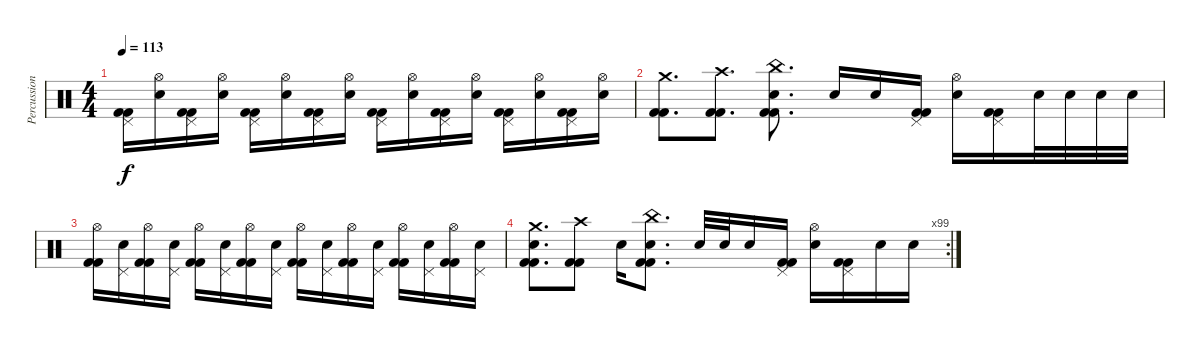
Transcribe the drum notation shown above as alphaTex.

\track ("Percussion" "Percussion") {instrument percussion}
\staff {score}
\articulation defaults
\ts (4 4)
\tempo 113
\clef neutral
\ks c
("Pedal Hi-Hat (hit)" "Kick (hit) 2" "Kick (hit) 2").16{dy f} ("Hi-Hat (open)" "Snare (hit) 2").16 ("Pedal Hi-Hat (hit)" "Kick (hit) 2" "Kick (hit) 2").16 ("Hi-Hat (open)" "Snare (hit) 2").16 ("Pedal Hi-Hat (hit)" "Kick (hit) 2" "Kick (hit) 2").16 ("Hi-Hat (open)" "Snare (hit) 2").16 ("Pedal Hi-Hat (hit)" "Kick (hit) 2" "Kick (hit) 2").16 ("Hi-Hat (open)" "Snare (hit) 2").16 ("Pedal Hi-Hat (hit)" "Kick (hit) 2" "Kick (hit) 2").16 ("Hi-Hat (open)" "Snare (hit) 2").16 ("Pedal Hi-Hat (hit)" "Kick (hit) 2" "Kick (hit) 2").16 ("Hi-Hat (open)" "Snare (hit) 2").16 ("Pedal Hi-Hat (hit)" "Kick (hit) 2" "Kick (hit) 2").16 ("Hi-Hat (open)" "Snare (hit) 2").16 ("Pedal Hi-Hat (hit)" "Kick (hit) 2" "Kick (hit) 2").16 ("Hi-Hat (open)" "Snare (hit) 2").16 |
("Crash medium (hit)" "Kick (hit) 2" "Kick (hit) 2").8{d} ("Crash high (hit)" "Kick (hit) 2" "Kick (hit) 2").8{d} ("China (hit)" "Snare (hit) 2" "Kick (hit) 2" "Kick (hit) 2").8{d} "Snare (hit) 2".16 "Snare (hit) 2".16 ("Pedal Hi-Hat (hit)" "Kick (hit) 2" "Kick (hit) 2").16 ("Hi-Hat (open)" "Snare (hit) 2").16 ("Pedal Hi-Hat (hit)" "Kick (hit) 2" "Kick (hit) 2").16 "Snare (hit) 2".32 "Snare (hit) 2".32 "Snare (hit) 2".32 "Snare (hit) 2".32 |
("Hi-Hat (open)" "Kick (hit) 2" "Kick (hit) 2").16 ("Pedal Hi-Hat (hit)" "Snare (hit) 2").16 ("Hi-Hat (open)" "Kick (hit) 2" "Kick (hit) 2").16 ("Pedal Hi-Hat (hit)" "Snare (hit) 2").16 ("Hi-Hat (open)" "Kick (hit) 2" "Kick (hit) 2").16 ("Pedal Hi-Hat (hit)" "Snare (hit) 2").16 ("Hi-Hat (open)" "Kick (hit) 2" "Kick (hit) 2").16 ("Pedal Hi-Hat (hit)" "Snare (hit) 2").16 ("Hi-Hat (open)" "Kick (hit) 2" "Kick (hit) 2").16 ("Pedal Hi-Hat (hit)" "Snare (hit) 2").16 ("Hi-Hat (open)" "Kick (hit) 2" "Kick (hit) 2").16 ("Pedal Hi-Hat (hit)" "Snare (hit) 2").16 ("Hi-Hat (open)" "Kick (hit) 2" "Kick (hit) 2").16 ("Pedal Hi-Hat (hit)" "Snare (hit) 2").16 ("Hi-Hat (open)" "Kick (hit) 2" "Kick (hit) 2").16 ("Pedal Hi-Hat (hit)" "Snare (hit) 2").16 |
\rc 99
("Crash medium (hit)" "Snare (hit) 2" "Kick (hit) 2" "Kick (hit) 2").8{d} ("Crash high (hit)" "Kick (hit) 2" "Kick (hit) 2").8 "Snare (hit) 2".16 ("China (hit)" "Snare (hit) 2" "Kick (hit) 2" "Kick (hit) 2").8{d} "Snare (hit) 2".32 "Snare (hit) 2".32 "Snare (hit) 2".16 ("Pedal Hi-Hat (hit)" "Kick (hit) 2" "Kick (hit) 2").16 ("Hi-Hat (open)" "Snare (hit) 2").16 ("Pedal Hi-Hat (hit)" "Kick (hit) 2" "Kick (hit) 2").16 "Snare (hit) 2".16 "Snare (hit) 2".16
